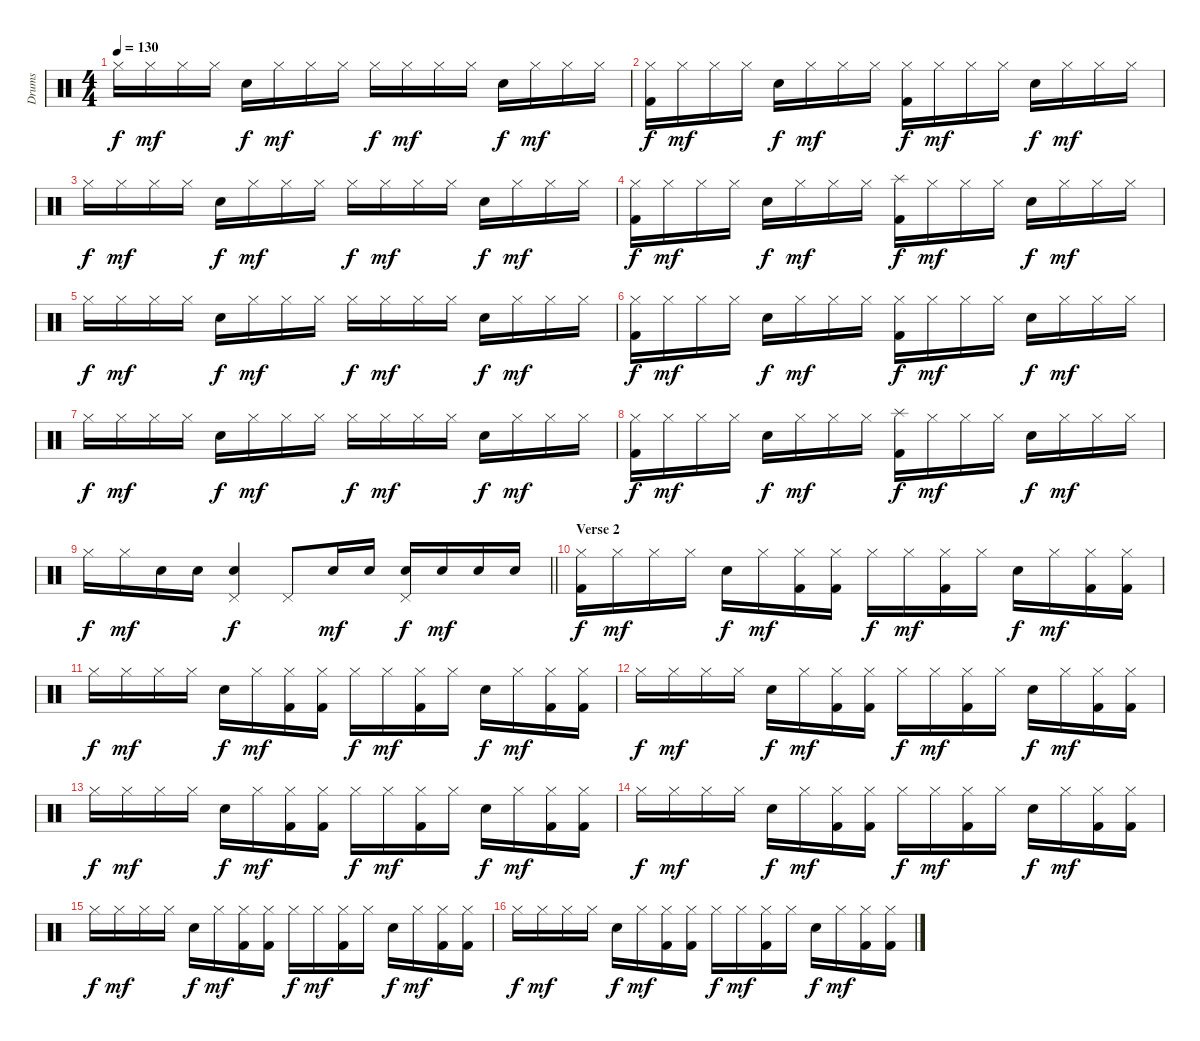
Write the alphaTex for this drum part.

\track ("Drums" "Drums") {instrument percussion}
\staff {score}
\articulation defaults
\ts (4 4)
\tempo 130
\clef neutral
\ks c "Hi-Hat (closed)".16{dy f} "Hi-Hat (closed)".16{dy mf} "Hi-Hat (closed)".16 "Hi-Hat (closed)".16 "Snare (hit) 2".16{dy f} "Hi-Hat (closed)".16{dy mf} "Hi-Hat (closed)".16 "Hi-Hat (closed)".16 "Hi-Hat (closed)".16{dy f} "Hi-Hat (closed)".16{dy mf} "Hi-Hat (closed)".16 "Hi-Hat (closed)".16 "Snare (hit) 2".16{dy f} "Hi-Hat (closed)".16{dy mf} "Hi-Hat (closed)".16 "Hi-Hat (closed)".16
|
("Hi-Hat (closed)" "Kick (hit) 2").16{dy f} "Hi-Hat (closed)".16{dy mf} "Hi-Hat (closed)".16 "Hi-Hat (closed)".16 "Snare (hit) 2".16{dy f} "Hi-Hat (closed)".16{dy mf} "Hi-Hat (closed)".16 "Hi-Hat (closed)".16 ("Hi-Hat (closed)" "Kick (hit) 2").16{dy f} "Hi-Hat (closed)".16{dy mf} "Hi-Hat (closed)".16 "Hi-Hat (closed)".16 "Snare (hit) 2".16{dy f} "Hi-Hat (closed)".16{dy mf} "Hi-Hat (closed)".16 "Hi-Hat (closed)".16 |
"Hi-Hat (closed)".16{dy f} "Hi-Hat (closed)".16{dy mf} "Hi-Hat (closed)".16 "Hi-Hat (closed)".16 "Snare (hit) 2".16{dy f} "Hi-Hat (closed)".16{dy mf} "Hi-Hat (closed)".16 "Hi-Hat (closed)".16 "Hi-Hat (closed)".16{dy f} "Hi-Hat (closed)".16{dy mf} "Hi-Hat (closed)".16 "Hi-Hat (closed)".16 "Snare (hit) 2".16{dy f} "Hi-Hat (closed)".16{dy mf} "Hi-Hat (closed)".16 "Hi-Hat (closed)".16 |
("Hi-Hat (closed)" "Kick (hit) 2").16{dy f} "Hi-Hat (closed)".16{dy mf} "Hi-Hat (closed)".16 "Hi-Hat (closed)".16 "Snare (hit) 2".16{dy f} "Hi-Hat (closed)".16{dy mf} "Hi-Hat (closed)".16 "Hi-Hat (closed)".16 ("Splash (hit)" "Kick (hit) 2").16{dy f} "Hi-Hat (closed)".16{dy mf} "Hi-Hat (closed)".16 "Hi-Hat (closed)".16 "Snare (hit) 2".16{dy f} "Hi-Hat (closed)".16{dy mf} "Hi-Hat (closed)".16 "Hi-Hat (closed)".16 |
"Hi-Hat (closed)".16{dy f} "Hi-Hat (closed)".16{dy mf} "Hi-Hat (closed)".16 "Hi-Hat (closed)".16 "Snare (hit) 2".16{dy f} "Hi-Hat (closed)".16{dy mf} "Hi-Hat (closed)".16 "Hi-Hat (closed)".16 "Hi-Hat (closed)".16{dy f} "Hi-Hat (closed)".16{dy mf} "Hi-Hat (closed)".16 "Hi-Hat (closed)".16 "Snare (hit) 2".16{dy f} "Hi-Hat (closed)".16{dy mf} "Hi-Hat (closed)".16 "Hi-Hat (closed)".16 |
("Hi-Hat (closed)" "Kick (hit) 2").16{dy f} "Hi-Hat (closed)".16{dy mf} "Hi-Hat (closed)".16 "Hi-Hat (closed)".16 "Snare (hit) 2".16{dy f} "Hi-Hat (closed)".16{dy mf} "Hi-Hat (closed)".16 "Hi-Hat (closed)".16 ("Hi-Hat (closed)" "Kick (hit) 2").16{dy f} "Hi-Hat (closed)".16{dy mf} "Hi-Hat (closed)".16 "Hi-Hat (closed)".16 "Snare (hit) 2".16{dy f} "Hi-Hat (closed)".16{dy mf} "Hi-Hat (closed)".16 "Hi-Hat (closed)".16 |
"Hi-Hat (closed)".16{dy f} "Hi-Hat (closed)".16{dy mf} "Hi-Hat (closed)".16 "Hi-Hat (closed)".16 "Snare (hit) 2".16{dy f} "Hi-Hat (closed)".16{dy mf} "Hi-Hat (closed)".16 "Hi-Hat (closed)".16 "Hi-Hat (closed)".16{dy f} "Hi-Hat (closed)".16{dy mf} "Hi-Hat (closed)".16 "Hi-Hat (closed)".16 "Snare (hit) 2".16{dy f} "Hi-Hat (closed)".16{dy mf} "Hi-Hat (closed)".16 "Hi-Hat (closed)".16 |
("Hi-Hat (closed)" "Kick (hit) 2").16{dy f} "Hi-Hat (closed)".16{dy mf} "Hi-Hat (closed)".16 "Hi-Hat (closed)".16 "Snare (hit) 2".16{dy f} "Hi-Hat (closed)".16{dy mf} "Hi-Hat (closed)".16 "Hi-Hat (closed)".16 ("Splash (hit)" "Kick (hit) 2").16{dy f} "Hi-Hat (closed)".16{dy mf} "Hi-Hat (closed)".16 "Hi-Hat (closed)".16 "Snare (hit) 2".16{dy f} "Hi-Hat (closed)".16{dy mf} "Hi-Hat (closed)".16 "Hi-Hat (closed)".16 |
\barLineRight lightlight "Hi-Hat (closed)".16{dy f} "Hi-Hat (closed)".16{dy mf} "Snare (hit) 2".16 "Snare (hit) 2".16
("Pedal Hi-Hat (hit)" "Snare (hit) 2").4{dy f} "Pedal Hi-Hat (hit)".8 "Snare (hit) 2".16{dy mf} "Snare (hit) 2".16 ("Pedal Hi-Hat (hit)" "Snare (hit) 2").16{dy f} "Snare (hit) 2".16{dy mf} "Snare (hit) 2".16 "Snare (hit) 2".16 |
\section ("" "Verse 2")
("Hi-Hat (closed)" "Kick (hit) 2").16{dy f} "Hi-Hat (closed)".16{dy mf} "Hi-Hat (closed)".16 "Hi-Hat (closed)".16 "Snare (hit) 2".16{dy f} "Hi-Hat (closed)".16{dy mf} ("Hi-Hat (closed)" "Kick (hit) 2").16 ("Hi-Hat (closed)" "Kick (hit) 2").16 "Hi-Hat (closed)".16{dy f} "Hi-Hat (closed)".16{dy mf} ("Hi-Hat (closed)" "Kick (hit) 2").16 "Hi-Hat (closed)".16 "Snare (hit) 2".16{dy f} "Hi-Hat (closed)".16{dy mf} ("Hi-Hat (closed)" "Kick (hit) 2").16 ("Hi-Hat (closed)" "Kick (hit) 2").16 |
"Hi-Hat (closed)".16{dy f} "Hi-Hat (closed)".16{dy mf} "Hi-Hat (closed)".16 "Hi-Hat (closed)".16 "Snare (hit) 2".16{dy f} "Hi-Hat (closed)".16{dy mf} ("Hi-Hat (closed)" "Kick (hit) 2").16 ("Hi-Hat (closed)" "Kick (hit) 2").16 "Hi-Hat (closed)".16{dy f} "Hi-Hat (closed)".16{dy mf} ("Hi-Hat (closed)" "Kick (hit) 2").16 "Hi-Hat (closed)".16 "Snare (hit) 2".16{dy f} "Hi-Hat (closed)".16{dy mf} ("Hi-Hat (closed)" "Kick (hit) 2").16 ("Hi-Hat (closed)" "Kick (hit) 2").16 |
"Hi-Hat (closed)".16{dy f} "Hi-Hat (closed)".16{dy mf} "Hi-Hat (closed)".16 "Hi-Hat (closed)".16 "Snare (hit) 2".16{dy f} "Hi-Hat (closed)".16{dy mf} ("Hi-Hat (closed)" "Kick (hit) 2").16 ("Hi-Hat (closed)" "Kick (hit) 2").16 "Hi-Hat (closed)".16{dy f} "Hi-Hat (closed)".16{dy mf} ("Hi-Hat (closed)" "Kick (hit) 2").16 "Hi-Hat (closed)".16 "Snare (hit) 2".16{dy f} "Hi-Hat (closed)".16{dy mf} ("Hi-Hat (closed)" "Kick (hit) 2").16 ("Hi-Hat (closed)" "Kick (hit) 2").16 |
"Hi-Hat (closed)".16{dy f} "Hi-Hat (closed)".16{dy mf} "Hi-Hat (closed)".16 "Hi-Hat (closed)".16 "Snare (hit) 2".16{dy f} "Hi-Hat (closed)".16{dy mf} ("Hi-Hat (closed)" "Kick (hit) 2").16 ("Hi-Hat (closed)" "Kick (hit) 2").16 "Hi-Hat (closed)".16{dy f} "Hi-Hat (closed)".16{dy mf} ("Hi-Hat (closed)" "Kick (hit) 2").16 "Hi-Hat (closed)".16 "Snare (hit) 2".16{dy f} "Hi-Hat (closed)".16{dy mf} ("Hi-Hat (closed)" "Kick (hit) 2").16 ("Hi-Hat (closed)" "Kick (hit) 2").16 |
"Hi-Hat (closed)".16{dy f} "Hi-Hat (closed)".16{dy mf} "Hi-Hat (closed)".16 "Hi-Hat (closed)".16 "Snare (hit) 2".16{dy f} "Hi-Hat (closed)".16{dy mf} ("Hi-Hat (closed)" "Kick (hit) 2").16 ("Hi-Hat (closed)" "Kick (hit) 2").16 "Hi-Hat (closed)".16{dy f} "Hi-Hat (closed)".16{dy mf} ("Hi-Hat (closed)" "Kick (hit) 2").16 "Hi-Hat (closed)".16 "Snare (hit) 2".16{dy f} "Hi-Hat (closed)".16{dy mf} ("Hi-Hat (closed)" "Kick (hit) 2").16 ("Hi-Hat (closed)" "Kick (hit) 2").16 |
"Hi-Hat (closed)".16{dy f} "Hi-Hat (closed)".16{dy mf} "Hi-Hat (closed)".16 "Hi-Hat (closed)".16 "Snare (hit) 2".16{dy f} "Hi-Hat (closed)".16{dy mf} ("Hi-Hat (closed)" "Kick (hit) 2").16 ("Hi-Hat (closed)" "Kick (hit) 2").16 "Hi-Hat (closed)".16{dy f} "Hi-Hat (closed)".16{dy mf} ("Hi-Hat (closed)" "Kick (hit) 2").16 "Hi-Hat (closed)".16 "Snare (hit) 2".16{dy f} "Hi-Hat (closed)".16{dy mf} ("Hi-Hat (closed)" "Kick (hit) 2").16 ("Hi-Hat (closed)" "Kick (hit) 2").16 |
"Hi-Hat (closed)".16{dy f} "Hi-Hat (closed)".16{dy mf} "Hi-Hat (closed)".16 "Hi-Hat (closed)".16 "Snare (hit) 2".16{dy f} "Hi-Hat (closed)".16{dy mf} ("Hi-Hat (closed)" "Kick (hit) 2").16 ("Hi-Hat (closed)" "Kick (hit) 2").16 "Hi-Hat (closed)".16{dy f} "Hi-Hat (closed)".16{dy mf} ("Hi-Hat (closed)" "Kick (hit) 2").16 "Hi-Hat (closed)".16 "Snare (hit) 2".16{dy f} "Hi-Hat (closed)".16{dy mf} ("Hi-Hat (closed)" "Kick (hit) 2").16 ("Hi-Hat (closed)" "Kick (hit) 2").16
